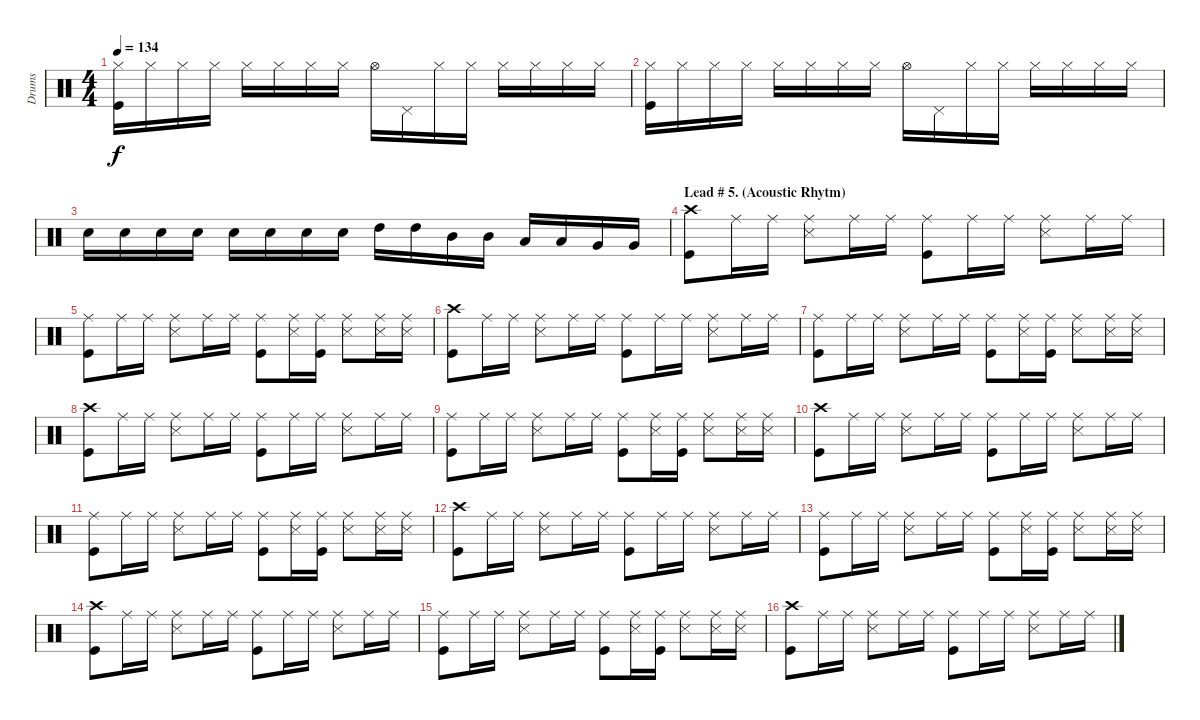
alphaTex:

\track ("Drums" "Drums") {instrument percussion}
\staff {score}
\articulation defaults
\ts (4 4)
\tempo 134
\clef neutral
\ks c
("Hi-Hat (closed)" "Kick (hit)").16{dy f} "Hi-Hat (closed)".16 "Hi-Hat (closed)".16 "Hi-Hat (closed)".16 "Hi-Hat (closed)".16 "Hi-Hat (closed)".16 "Hi-Hat (closed)".16 "Hi-Hat (closed)".16 "Hi-Hat (open)".16 "Pedal Hi-Hat (hit)".16 "Hi-Hat (closed)".16 "Hi-Hat (closed)".16 "Hi-Hat (closed)".16 "Hi-Hat (closed)".16 "Hi-Hat (closed)".16 "Hi-Hat (closed)".16 |
("Hi-Hat (closed)" "Kick (hit)").16 "Hi-Hat (closed)".16 "Hi-Hat (closed)".16 "Hi-Hat (closed)".16 "Hi-Hat (closed)".16 "Hi-Hat (closed)".16 "Hi-Hat (closed)".16 "Hi-Hat (closed)".16 "Hi-Hat (open)".16 "Pedal Hi-Hat (hit)".16 "Hi-Hat (closed)".16 "Hi-Hat (closed)".16 "Hi-Hat (closed)".16 "Hi-Hat (closed)".16 "Hi-Hat (closed)".16 "Hi-Hat (closed)".16 |
"Electric Snare (hit)".16 "Electric Snare (hit)".16 "Electric Snare (hit)".16 "Electric Snare (hit)".16 "Electric Snare (hit)".16 "Electric Snare (hit)".16 "Electric Snare (hit)".16 "Electric Snare (hit)".16 "High Tom (hit)".16 "High Tom (hit)".16 "Mid Tom (hit)".16 "Mid Tom (hit)".16 "Low Tom (hit)".16 "Low Tom (hit)".16 "Very Low Tom (hit)".16 "Very Low Tom (hit)".16 |
\section ("" "Lead # 5. (Acoustic Rhytm)")
("Crash high (hit)" "Kick (hit)").8 "Ride (middle)".16 "Ride (middle)".16 ("Ride (middle)" "Snare (side stick) 3").8 "Ride (middle)".16 "Ride (middle)".16 ("Ride (middle)" "Kick (hit)").8 "Ride (middle)".16 "Ride (middle)".16 ("Ride (middle)" "Snare (side stick) 3").8 "Ride (middle)".16 "Ride (middle)".16 |
("Ride (middle)" "Kick (hit)").8 "Ride (middle)".16 "Ride (middle)".16 ("Ride (middle)" "Snare (side stick) 3").8 "Ride (middle)".16 "Ride (middle)".16 ("Ride (middle)" "Kick (hit)").8 ("Ride (middle)" "Snare (side stick) 3").16 ("Ride (middle)" "Kick (hit)").16 ("Ride (middle)" "Snare (side stick) 3").8 ("Ride (middle)" "Snare (side stick) 3").16 ("Ride (middle)" "Snare (side stick) 3").16 |
("Crash high (hit)" "Kick (hit)").8 "Ride (middle)".16 "Ride (middle)".16 ("Ride (middle)" "Snare (side stick) 3").8 "Ride (middle)".16 "Ride (middle)".16 ("Ride (middle)" "Kick (hit)").8 "Ride (middle)".16 "Ride (middle)".16 ("Ride (middle)" "Snare (side stick) 3").8 "Ride (middle)".16 "Ride (middle)".16 |
("Ride (middle)" "Kick (hit)").8 "Ride (middle)".16 "Ride (middle)".16 ("Ride (middle)" "Snare (side stick) 3").8 "Ride (middle)".16 "Ride (middle)".16 ("Ride (middle)" "Kick (hit)").8 ("Ride (middle)" "Snare (side stick) 3").16 ("Ride (middle)" "Kick (hit)").16 ("Ride (middle)" "Snare (side stick) 3").8 ("Ride (middle)" "Snare (side stick) 3").16 ("Ride (middle)" "Snare (side stick) 3").16 |
("Crash high (hit)" "Kick (hit)").8 "Ride (middle)".16 "Ride (middle)".16 ("Ride (middle)" "Snare (side stick) 3").8 "Ride (middle)".16 "Ride (middle)".16 ("Ride (middle)" "Kick (hit)").8 "Ride (middle)".16 "Ride (middle)".16 ("Ride (middle)" "Snare (side stick) 3").8 "Ride (middle)".16 "Ride (middle)".16 |
("Ride (middle)" "Kick (hit)").8 "Ride (middle)".16 "Ride (middle)".16 ("Ride (middle)" "Snare (side stick) 3").8 "Ride (middle)".16 "Ride (middle)".16 ("Ride (middle)" "Kick (hit)").8 ("Ride (middle)" "Snare (side stick) 3").16 ("Ride (middle)" "Kick (hit)").16 ("Ride (middle)" "Snare (side stick) 3").8 ("Ride (middle)" "Snare (side stick) 3").16 ("Ride (middle)" "Snare (side stick) 3").16 |
("Crash high (hit)" "Kick (hit)").8 "Ride (middle)".16 "Ride (middle)".16 ("Ride (middle)" "Snare (side stick) 3").8 "Ride (middle)".16 "Ride (middle)".16 ("Ride (middle)" "Kick (hit)").8 "Ride (middle)".16 "Ride (middle)".16 ("Ride (middle)" "Snare (side stick) 3").8 "Ride (middle)".16 "Ride (middle)".16 |
("Ride (middle)" "Kick (hit)").8 "Ride (middle)".16 "Ride (middle)".16 ("Ride (middle)" "Snare (side stick) 3").8 "Ride (middle)".16 "Ride (middle)".16 ("Ride (middle)" "Kick (hit)").8 ("Ride (middle)" "Snare (side stick) 3").16 ("Ride (middle)" "Kick (hit)").16 ("Ride (middle)" "Snare (side stick) 3").8 ("Ride (middle)" "Snare (side stick) 3").16 ("Ride (middle)" "Snare (side stick) 3").16 |
("Crash high (hit)" "Kick (hit)").8 "Ride (middle)".16 "Ride (middle)".16 ("Ride (middle)" "Snare (side stick) 3").8 "Ride (middle)".16 "Ride (middle)".16 ("Ride (middle)" "Kick (hit)").8 "Ride (middle)".16 "Ride (middle)".16 ("Ride (middle)" "Snare (side stick) 3").8 "Ride (middle)".16 "Ride (middle)".16 |
("Ride (middle)" "Kick (hit)").8 "Ride (middle)".16 "Ride (middle)".16 ("Ride (middle)" "Snare (side stick) 3").8 "Ride (middle)".16 "Ride (middle)".16 ("Ride (middle)" "Kick (hit)").8 ("Ride (middle)" "Snare (side stick) 3").16 ("Ride (middle)" "Kick (hit)").16 ("Ride (middle)" "Snare (side stick) 3").8 ("Ride (middle)" "Snare (side stick) 3").16 ("Ride (middle)" "Snare (side stick) 3").16 |
("Crash high (hit)" "Kick (hit)").8 "Ride (middle)".16 "Ride (middle)".16 ("Ride (middle)" "Snare (side stick) 3").8 "Ride (middle)".16 "Ride (middle)".16 ("Ride (middle)" "Kick (hit)").8 "Ride (middle)".16 "Ride (middle)".16 ("Ride (middle)" "Snare (side stick) 3").8 "Ride (middle)".16 "Ride (middle)".16 |
("Ride (middle)" "Kick (hit)").8 "Ride (middle)".16 "Ride (middle)".16 ("Ride (middle)" "Snare (side stick) 3").8 "Ride (middle)".16 "Ride (middle)".16 ("Ride (middle)" "Kick (hit)").8 ("Ride (middle)" "Snare (side stick) 3").16 ("Ride (middle)" "Kick (hit)").16 ("Ride (middle)" "Snare (side stick) 3").8 ("Ride (middle)" "Snare (side stick) 3").16 ("Ride (middle)" "Snare (side stick) 3").16 |
("Crash high (hit)" "Kick (hit)").8 "Ride (middle)".16 "Ride (middle)".16 ("Ride (middle)" "Snare (side stick) 3").8 "Ride (middle)".16 "Ride (middle)".16 ("Ride (middle)" "Kick (hit)").8 "Ride (middle)".16 "Ride (middle)".16 ("Ride (middle)" "Snare (side stick) 3").8 "Ride (middle)".16 "Ride (middle)".16
